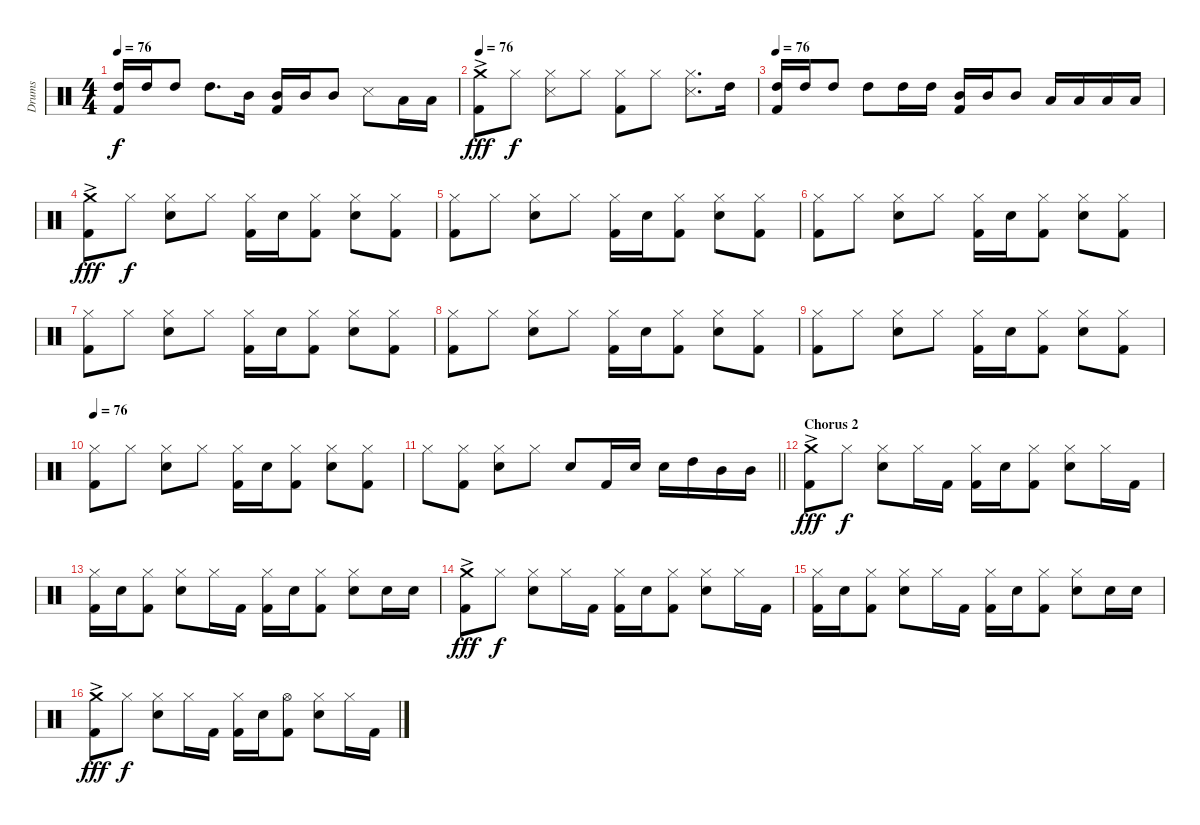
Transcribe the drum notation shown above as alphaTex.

\track ("Drums" "Drums") {instrument percussion}
\staff {score}
\articulation defaults
\ts (4 4)
\tempo 76
\clef neutral
\ks c
("High Tom (hit)" "Kick (hit) 2").16{dy f} "High Tom (hit)".16 "High Tom (hit)".8 "High Tom (hit)".8{d} "Mid Tom (hit)".16 ("Mid Tom (hit)" "Kick (hit) 2").16 "Mid Tom (hit)".16 "Mid Tom (hit)".8 "Snare (side stick) 3".8 "Low Tom (hit)".16 "Low Tom (hit)".16 |
\tempo 76
("Crash medium (hit)"{ac} "Kick (hit) 2").8{dy fff} "Hi-Hat (closed)".8{dy f} ("Hi-Hat (closed)" "Snare (side stick) 3").8 "Hi-Hat (closed)".8 ("Hi-Hat (closed)" "Kick (hit) 2").8 "Hi-Hat (closed)".8 ("Hi-Hat (closed)" "Snare (side stick) 3").8{d} "High Tom (hit)".16 |
\tempo 76
("High Tom (hit)" "Kick (hit) 2").16 "High Tom (hit)".16 "High Tom (hit)".8 "High Tom (hit)".8 "High Tom (hit)".16 "High Tom (hit)".16 ("Mid Tom (hit)" "Kick (hit) 2").16 "Mid Tom (hit)".16 "Mid Tom (hit)".8 "Low Tom (hit)".16 "Low Tom (hit)".16 "Low Tom (hit)".16 "Low Tom (hit)".16 |
("Crash medium (hit)"{ac} "Kick (hit) 2").8{dy fff} "Hi-Hat (closed)".8{dy f} ("Hi-Hat (closed)" "Snare (hit) 2").8 "Hi-Hat (closed)".8 ("Hi-Hat (closed)" "Kick (hit) 2").16 "Snare (hit) 2".16 ("Hi-Hat (closed)" "Kick (hit) 2").8 ("Hi-Hat (closed)" "Snare (hit) 2").8 ("Hi-Hat (closed)" "Kick (hit) 2").8 |
("Hi-Hat (closed)" "Kick (hit) 2").8 "Hi-Hat (closed)".8 ("Hi-Hat (closed)" "Snare (hit) 2").8 "Hi-Hat (closed)".8 ("Hi-Hat (closed)" "Kick (hit) 2").16 "Snare (hit) 2".16 ("Hi-Hat (closed)" "Kick (hit) 2").8 ("Hi-Hat (closed)" "Snare (hit) 2").8 ("Hi-Hat (closed)" "Kick (hit) 2").8 |
("Hi-Hat (closed)" "Kick (hit) 2").8 "Hi-Hat (closed)".8 ("Hi-Hat (closed)" "Snare (hit) 2").8 "Hi-Hat (closed)".8 ("Hi-Hat (closed)" "Kick (hit) 2").16 "Snare (hit) 2".16 ("Hi-Hat (closed)" "Kick (hit) 2").8 ("Hi-Hat (closed)" "Snare (hit) 2").8 ("Hi-Hat (closed)" "Kick (hit) 2").8 |
("Hi-Hat (closed)" "Kick (hit) 2").8 "Hi-Hat (closed)".8 ("Hi-Hat (closed)" "Snare (hit) 2").8 "Hi-Hat (closed)".8 ("Hi-Hat (closed)" "Kick (hit) 2").16 "Snare (hit) 2".16 ("Hi-Hat (closed)" "Kick (hit) 2").8 ("Hi-Hat (closed)" "Snare (hit) 2").8 ("Hi-Hat (closed)" "Kick (hit) 2").8 |
("Hi-Hat (closed)" "Kick (hit) 2").8 "Hi-Hat (closed)".8 ("Hi-Hat (closed)" "Snare (hit) 2").8 "Hi-Hat (closed)".8 ("Hi-Hat (closed)" "Kick (hit) 2").16 "Snare (hit) 2".16 ("Hi-Hat (closed)" "Kick (hit) 2").8 ("Hi-Hat (closed)" "Snare (hit) 2").8 ("Hi-Hat (closed)" "Kick (hit) 2").8 |
("Hi-Hat (closed)" "Kick (hit) 2").8 "Hi-Hat (closed)".8 ("Hi-Hat (closed)" "Snare (hit) 2").8 "Hi-Hat (closed)".8 ("Hi-Hat (closed)" "Kick (hit) 2").16 "Snare (hit) 2".16 ("Hi-Hat (closed)" "Kick (hit) 2").8 ("Hi-Hat (closed)" "Snare (hit) 2").8 ("Hi-Hat (closed)" "Kick (hit) 2").8 |
\tempo 76
("Hi-Hat (closed)" "Kick (hit) 2").8 "Hi-Hat (closed)".8 ("Hi-Hat (closed)" "Snare (hit) 2").8 "Hi-Hat (closed)".8 ("Hi-Hat (closed)" "Kick (hit) 2").16 "Snare (hit) 2".16 ("Hi-Hat (closed)" "Kick (hit) 2").8 ("Hi-Hat (closed)" "Snare (hit) 2").8 ("Hi-Hat (closed)" "Kick (hit) 2").8 |
\barLineRight lightlight "Hi-Hat (closed)".8
("Hi-Hat (closed)" "Kick (hit) 2").8 ("Hi-Hat (closed)" "Snare (hit) 2").8 "Hi-Hat (closed)".8 "Snare (hit) 2".8 "Kick (hit) 2".16 "Snare (hit) 2".16 "Snare (hit) 2".16 "High Tom (hit)".16 "Mid Tom (hit)".16 "Mid Tom (hit)".16 |
\section ("" "Chorus 2")
("Crash medium (hit)"{ac} "Kick (hit) 2").8{dy fff} "Hi-Hat (closed)".8{dy f} ("Hi-Hat (closed)" "Snare (hit) 2").8 "Hi-Hat (closed)".16 "Kick (hit) 2".16 ("Hi-Hat (closed)" "Kick (hit) 2").16 "Snare (hit) 2".16 ("Hi-Hat (closed)" "Kick (hit) 2").8 ("Hi-Hat (closed)" "Snare (hit) 2").8 "Hi-Hat (closed)".16 "Kick (hit) 2".16 |
("Hi-Hat (closed)" "Kick (hit) 2").16 "Snare (hit) 2".16 ("Hi-Hat (closed)" "Kick (hit) 2").8 ("Hi-Hat (closed)" "Snare (hit) 2").8 "Hi-Hat (closed)".16 "Kick (hit) 2".16 ("Hi-Hat (closed)" "Kick (hit) 2").16 "Snare (hit) 2".16 ("Hi-Hat (closed)" "Kick (hit) 2").8 ("Hi-Hat (closed)" "Snare (hit) 2").8 "Snare (hit) 2".16 "Snare (hit) 2".16 |
("Crash medium (hit)"{ac} "Kick (hit) 2").8{dy fff} "Hi-Hat (closed)".8{dy f} ("Hi-Hat (closed)" "Snare (hit) 2").8 "Hi-Hat (closed)".16 "Kick (hit) 2".16 ("Hi-Hat (closed)" "Kick (hit) 2").16 "Snare (hit) 2".16 ("Hi-Hat (closed)" "Kick (hit) 2").8 ("Hi-Hat (closed)" "Snare (hit) 2").8 "Hi-Hat (closed)".16 "Kick (hit) 2".16 |
("Hi-Hat (closed)" "Kick (hit) 2").16 "Snare (hit) 2".16 ("Hi-Hat (closed)" "Kick (hit) 2").8 ("Hi-Hat (closed)" "Snare (hit) 2").8 "Hi-Hat (closed)".16 "Kick (hit) 2".16 ("Hi-Hat (closed)" "Kick (hit) 2").16 "Snare (hit) 2".16 ("Hi-Hat (closed)" "Kick (hit) 2").8 ("Hi-Hat (closed)" "Snare (hit) 2").8 "Snare (hit) 2".16 "Snare (hit) 2".16 |
("Crash medium (hit)"{ac} "Kick (hit) 2").8{dy fff} "Hi-Hat (closed)".8{dy f} ("Hi-Hat (closed)" "Snare (hit) 2").8 "Hi-Hat (closed)".16 "Kick (hit) 2".16 ("Hi-Hat (closed)" "Kick (hit) 2").16 "Snare (hit) 2".16 ("Hi-Hat (open)" "Kick (hit) 2").8 ("Hi-Hat (closed)" "Snare (hit) 2").8 "Hi-Hat (closed)".16 "Kick (hit) 2".16
